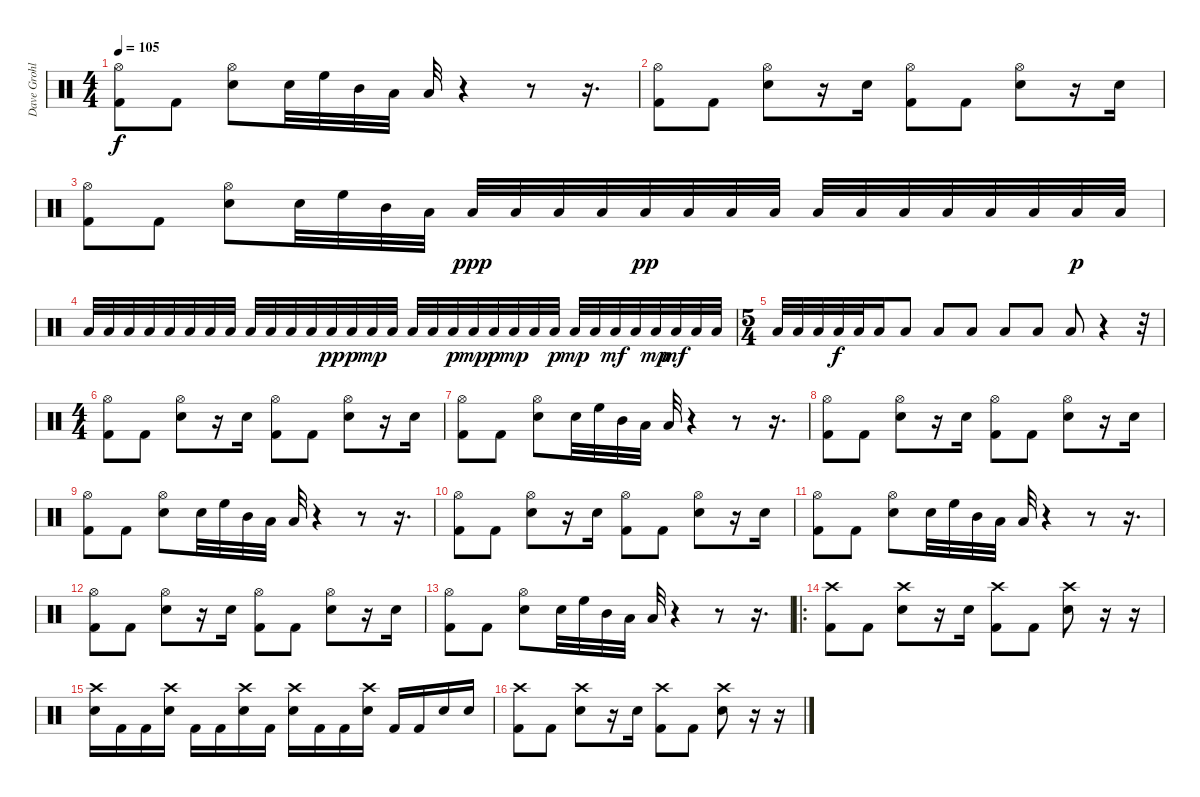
\track ("Dave Grohl" "Dave Grohl") {instrument percussion}
\staff {score}
\articulation defaults
\ts (4 4)
\tempo 105
\clef neutral
\ks c
("Hi-Hat (open)" "Kick (hit) 2").8{dy f} "Kick (hit) 2".8 ("Hi-Hat (open)" "Snare (hit) 2").8 "Snare (hit) 2".32 "High Floor Tom (hit)".32 "Mid Tom (hit)".32 "Low Tom (hit)".32 "Low Floor Tom (hit)".32 r.4 r.8 r.16{d} |
("Hi-Hat (open)" "Kick (hit) 2").8 "Kick (hit) 2".8 ("Hi-Hat (open)" "Snare (hit) 2").8 r.16 "Snare (hit) 2".16 ("Hi-Hat (open)" "Kick (hit) 2").8 "Kick (hit) 2".8 ("Hi-Hat (open)" "Snare (hit) 2").8 r.16 "Snare (hit) 2".16 |
("Hi-Hat (open)" "Kick (hit) 2").8 "Kick (hit) 2".8 ("Hi-Hat (open)" "Snare (hit) 2").8 "Snare (hit) 2".32 "High Floor Tom (hit)".32 "Mid Tom (hit)".32 "Low Tom (hit)".32 "Low Floor Tom (hit)".32{dy ppp} "Low Floor Tom (hit)".32 "Low Floor Tom (hit)".32 "Low Floor Tom (hit)".32 "Low Floor Tom (hit)".32{dy pp} "Low Floor Tom (hit)".32 "Low Floor Tom (hit)".32 "Low Floor Tom (hit)".32 "Low Floor Tom (hit)".32 "Low Floor Tom (hit)".32 "Low Floor Tom (hit)".32 "Low Floor Tom (hit)".32 "Low Floor Tom (hit)".32 "Low Floor Tom (hit)".32 "Low Floor Tom (hit)".32{dy p} "Low Floor Tom (hit)".32 |
"Low Floor Tom (hit)".32 "Low Floor Tom (hit)".32 "Low Floor Tom (hit)".32 "Low Floor Tom (hit)".32 "Low Floor Tom (hit)".32 "Low Floor Tom (hit)".32 "Low Floor Tom (hit)".32 "Low Floor Tom (hit)".32 "Low Floor Tom (hit)".32 "Low Floor Tom (hit)".32 "Low Floor Tom (hit)".32 "Low Floor Tom (hit)".32 "Low Floor Tom (hit)".32{dy pp} "Low Floor Tom (hit)".32{dy p} "Low Floor Tom (hit)".32{dy mp} "Low Floor Tom (hit)".32 "Low Floor Tom (hit)".32 "Low Floor Tom (hit)".32 "Low Floor Tom (hit)".32{dy p} "Low Floor Tom (hit)".32{dy mp} "Low Floor Tom (hit)".32{dy p} "Low Floor Tom (hit)".32{dy mp} "Low Floor Tom (hit)".32 "Low Floor Tom (hit)".32{dy p} "Low Floor Tom (hit)".32{dy mp} "Low Floor Tom (hit)".32 "Low Floor Tom (hit)".32{dy mf} "Low Floor Tom (hit)".32 "Low Floor Tom (hit)".32{dy mp} "Low Floor Tom (hit)".32{dy mf} "Low Floor Tom (hit)".32 "Low Floor Tom (hit)".32 |
\ts (5 4)
"Low Floor Tom (hit)".32 "Low Floor Tom (hit)".32 "Low Floor Tom (hit)".32 "Low Floor Tom (hit)".32{dy f} "Low Floor Tom (hit)".32 "Low Floor Tom (hit)".16 "Low Floor Tom (hit)".8 "Low Floor Tom (hit)".8 "Low Floor Tom (hit)".8 "Low Floor Tom (hit)".8 "Low Floor Tom (hit)".8 "Low Floor Tom (hit)".8 r.4 r.32 |
\ts (4 4)
("Hi-Hat (open)" "Kick (hit) 2").8 "Kick (hit) 2".8 ("Hi-Hat (open)" "Snare (hit) 2").8 r.16 "Snare (hit) 2".16 ("Hi-Hat (open)" "Kick (hit) 2").8 "Kick (hit) 2".8 ("Hi-Hat (open)" "Snare (hit) 2").8 r.16 "Snare (hit) 2".16 |
("Hi-Hat (open)" "Kick (hit) 2").8 "Kick (hit) 2".8 ("Hi-Hat (open)" "Snare (hit) 2").8 "Snare (hit) 2".32 "High Floor Tom (hit)".32 "Mid Tom (hit)".32 "Low Tom (hit)".32 "Low Floor Tom (hit)".32 r.4 r.8 r.16{d} |
("Hi-Hat (open)" "Kick (hit) 2").8 "Kick (hit) 2".8 ("Hi-Hat (open)" "Snare (hit) 2").8 r.16 "Snare (hit) 2".16 ("Hi-Hat (open)" "Kick (hit) 2").8 "Kick (hit) 2".8 ("Hi-Hat (open)" "Snare (hit) 2").8 r.16 "Snare (hit) 2".16 |
("Hi-Hat (open)" "Kick (hit) 2").8 "Kick (hit) 2".8 ("Hi-Hat (open)" "Snare (hit) 2").8 "Snare (hit) 2".32 "High Floor Tom (hit)".32 "Mid Tom (hit)".32 "Low Tom (hit)".32 "Low Floor Tom (hit)".32 r.4 r.8 r.16{d} |
("Hi-Hat (open)" "Kick (hit) 2").8 "Kick (hit) 2".8 ("Hi-Hat (open)" "Snare (hit) 2").8 r.16 "Snare (hit) 2".16 ("Hi-Hat (open)" "Kick (hit) 2").8 "Kick (hit) 2".8 ("Hi-Hat (open)" "Snare (hit) 2").8 r.16 "Snare (hit) 2".16 |
("Hi-Hat (open)" "Kick (hit) 2").8 "Kick (hit) 2".8 ("Hi-Hat (open)" "Snare (hit) 2").8 "Snare (hit) 2".32 "High Floor Tom (hit)".32 "Mid Tom (hit)".32 "Low Tom (hit)".32 "Low Floor Tom (hit)".32 r.4 r.8 r.16{d} |
("Hi-Hat (open)" "Kick (hit) 2").8 "Kick (hit) 2".8 ("Hi-Hat (open)" "Snare (hit) 2").8 r.16 "Snare (hit) 2".16 ("Hi-Hat (open)" "Kick (hit) 2").8 "Kick (hit) 2".8 ("Hi-Hat (open)" "Snare (hit) 2").8 r.16 "Snare (hit) 2".16 |
("Hi-Hat (open)" "Kick (hit) 2").8 "Kick (hit) 2".8 ("Hi-Hat (open)" "Snare (hit) 2").8 "Snare (hit) 2".32 "High Floor Tom (hit)".32 "Mid Tom (hit)".32 "Low Tom (hit)".32 "Low Floor Tom (hit)".32 r.4 r.8 r.16{d} |
\ro
("Crash high (hit)" "Kick (hit) 2").8 "Kick (hit) 2".8 ("Crash high (hit)" "Snare (hit) 2").8 r.16 "Snare (hit) 2".16 ("Crash high (hit)" "Kick (hit) 2").8 "Kick (hit) 2".8 ("Crash high (hit)" "Snare (hit) 2").8 r.16 r.16 |
("Crash high (hit)" "Snare (hit) 2").16 "Kick (hit) 2".16 "Kick (hit) 2".16 ("Crash high (hit)" "Snare (hit) 2").16 "Kick (hit) 2".16 "Kick (hit) 2".16 ("Crash high (hit)" "Snare (hit) 2").16 "Kick (hit) 2".16 ("Crash high (hit)" "Snare (hit) 2").16 "Kick (hit) 2".16 "Kick (hit) 2".16 ("Crash high (hit)" "Snare (hit) 2").16 "Kick (hit) 2".16 "Kick (hit) 2".16 "Snare (hit) 2".16 "Snare (hit) 2".16 |
("Crash high (hit)" "Kick (hit) 2").8 "Kick (hit) 2".8 ("Crash high (hit)" "Snare (hit) 2").8 r.16 "Snare (hit) 2".16 ("Crash high (hit)" "Kick (hit) 2").8 "Kick (hit) 2".8 ("Crash high (hit)" "Snare (hit) 2").8 r.16 r.16
